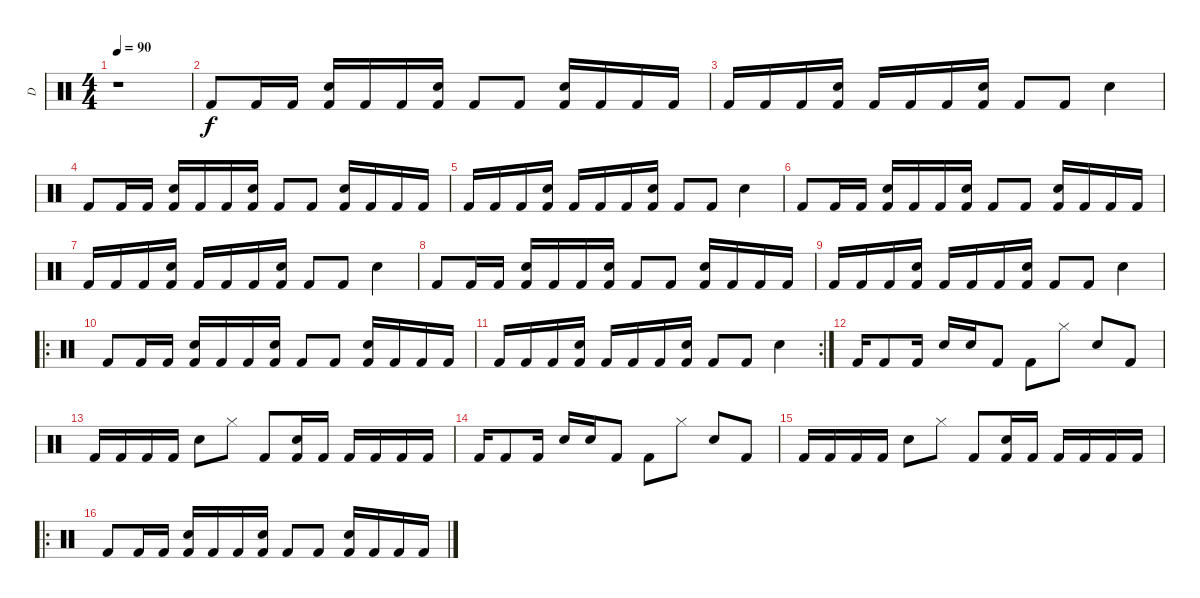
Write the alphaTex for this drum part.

\track ("D" "D") {instrument percussion}
\staff {score}
\articulation defaults
\ts (4 4)
\tempo 90
\clef neutral
\ks c
r.1{dy f} |
"Kick (hit) 2".8 "Kick (hit) 2".16 "Kick (hit) 2".16 ("Electric Snare (hit)" "Kick (hit) 2").16 "Kick (hit) 2".16 "Kick (hit) 2".16 ("Electric Snare (hit)" "Kick (hit) 2").16 "Kick (hit) 2".8 "Kick (hit) 2".8 ("Electric Snare (hit)" "Kick (hit) 2").16 "Kick (hit) 2".16 "Kick (hit) 2".16 "Kick (hit) 2".16 |
"Kick (hit) 2".16 "Kick (hit) 2".16 "Kick (hit) 2".16 ("Electric Snare (hit)" "Kick (hit) 2").16 "Kick (hit) 2".16 "Kick (hit) 2".16 "Kick (hit) 2".16 ("Electric Snare (hit)" "Kick (hit) 2").16 "Kick (hit) 2".8 "Kick (hit) 2".8 "Electric Snare (hit)".4 |
"Kick (hit) 2".8 "Kick (hit) 2".16 "Kick (hit) 2".16 ("Electric Snare (hit)" "Kick (hit) 2").16 "Kick (hit) 2".16 "Kick (hit) 2".16 ("Electric Snare (hit)" "Kick (hit) 2").16 "Kick (hit) 2".8 "Kick (hit) 2".8 ("Electric Snare (hit)" "Kick (hit) 2").16 "Kick (hit) 2".16 "Kick (hit) 2".16 "Kick (hit) 2".16 |
"Kick (hit) 2".16 "Kick (hit) 2".16 "Kick (hit) 2".16 ("Electric Snare (hit)" "Kick (hit) 2").16 "Kick (hit) 2".16 "Kick (hit) 2".16 "Kick (hit) 2".16 ("Electric Snare (hit)" "Kick (hit) 2").16 "Kick (hit) 2".8 "Kick (hit) 2".8 "Electric Snare (hit)".4 |
"Kick (hit) 2".8 "Kick (hit) 2".16 "Kick (hit) 2".16 ("Electric Snare (hit)" "Kick (hit) 2").16 "Kick (hit) 2".16 "Kick (hit) 2".16 ("Electric Snare (hit)" "Kick (hit) 2").16 "Kick (hit) 2".8 "Kick (hit) 2".8 ("Electric Snare (hit)" "Kick (hit) 2").16 "Kick (hit) 2".16 "Kick (hit) 2".16 "Kick (hit) 2".16 |
"Kick (hit) 2".16 "Kick (hit) 2".16 "Kick (hit) 2".16 ("Electric Snare (hit)" "Kick (hit) 2").16 "Kick (hit) 2".16 "Kick (hit) 2".16 "Kick (hit) 2".16 ("Electric Snare (hit)" "Kick (hit) 2").16 "Kick (hit) 2".8 "Kick (hit) 2".8 "Electric Snare (hit)".4 |
"Kick (hit) 2".8 "Kick (hit) 2".16 "Kick (hit) 2".16 ("Electric Snare (hit)" "Kick (hit) 2").16 "Kick (hit) 2".16 "Kick (hit) 2".16 ("Electric Snare (hit)" "Kick (hit) 2").16 "Kick (hit) 2".8 "Kick (hit) 2".8 ("Electric Snare (hit)" "Kick (hit) 2").16 "Kick (hit) 2".16 "Kick (hit) 2".16 "Kick (hit) 2".16 |
"Kick (hit) 2".16 "Kick (hit) 2".16 "Kick (hit) 2".16 ("Electric Snare (hit)" "Kick (hit) 2").16 "Kick (hit) 2".16 "Kick (hit) 2".16 "Kick (hit) 2".16 ("Electric Snare (hit)" "Kick (hit) 2").16 "Kick (hit) 2".8 "Kick (hit) 2".8 "Electric Snare (hit)".4 |
\ro "Kick (hit) 2".8 "Kick (hit) 2".16 "Kick (hit) 2".16
("Electric Snare (hit)" "Kick (hit) 2").16 "Kick (hit) 2".16 "Kick (hit) 2".16 ("Electric Snare (hit)" "Kick (hit) 2").16 "Kick (hit) 2".8 "Kick (hit) 2".8 ("Electric Snare (hit)" "Kick (hit) 2").16 "Kick (hit) 2".16 "Kick (hit) 2".16 "Kick (hit) 2".16 |
\rc 2 "Kick (hit) 2".16 "Kick (hit) 2".16 "Kick (hit) 2".16
("Electric Snare (hit)" "Kick (hit) 2").16 "Kick (hit) 2".16 "Kick (hit) 2".16 "Kick (hit) 2".16 ("Electric Snare (hit)" "Kick (hit) 2").16 "Kick (hit) 2".8 "Kick (hit) 2".8 "Electric Snare (hit)".4 |
"Kick (hit) 2".16 "Kick (hit) 2".8 "Kick (hit) 2".16 "Electric Snare (hit)".16 "Electric Snare (hit)".16 "Kick (hit) 2".8 "Kick (hit) 2".8 "Hi-Hat (closed)".8 "Electric Snare (hit)".8 "Kick (hit) 2".8 |
"Kick (hit) 2".16 "Kick (hit) 2".16 "Kick (hit) 2".16 "Kick (hit) 2".16 "Electric Snare (hit)".8 "Hi-Hat (closed)".8 "Kick (hit) 2".8 ("Electric Snare (hit)" "Kick (hit) 2").16 "Kick (hit) 2".16 "Kick (hit) 2".16 "Kick (hit) 2".16 "Kick (hit) 2".16 "Kick (hit) 2".16 |
"Kick (hit) 2".16 "Kick (hit) 2".8 "Kick (hit) 2".16 "Electric Snare (hit)".16 "Electric Snare (hit)".16 "Kick (hit) 2".8 "Kick (hit) 2".8 "Hi-Hat (closed)".8 "Electric Snare (hit)".8 "Kick (hit) 2".8 |
"Kick (hit) 2".16 "Kick (hit) 2".16 "Kick (hit) 2".16 "Kick (hit) 2".16 "Electric Snare (hit)".8 "Hi-Hat (closed)".8 "Kick (hit) 2".8 ("Electric Snare (hit)" "Kick (hit) 2").16 "Kick (hit) 2".16 "Kick (hit) 2".16 "Kick (hit) 2".16 "Kick (hit) 2".16 "Kick (hit) 2".16 |
\ro "Kick (hit) 2".8 "Kick (hit) 2".16 "Kick (hit) 2".16
("Electric Snare (hit)" "Kick (hit) 2").16 "Kick (hit) 2".16 "Kick (hit) 2".16 ("Electric Snare (hit)" "Kick (hit) 2").16 "Kick (hit) 2".8 "Kick (hit) 2".8 ("Electric Snare (hit)" "Kick (hit) 2").16 "Kick (hit) 2".16 "Kick (hit) 2".16 "Kick (hit) 2".16
